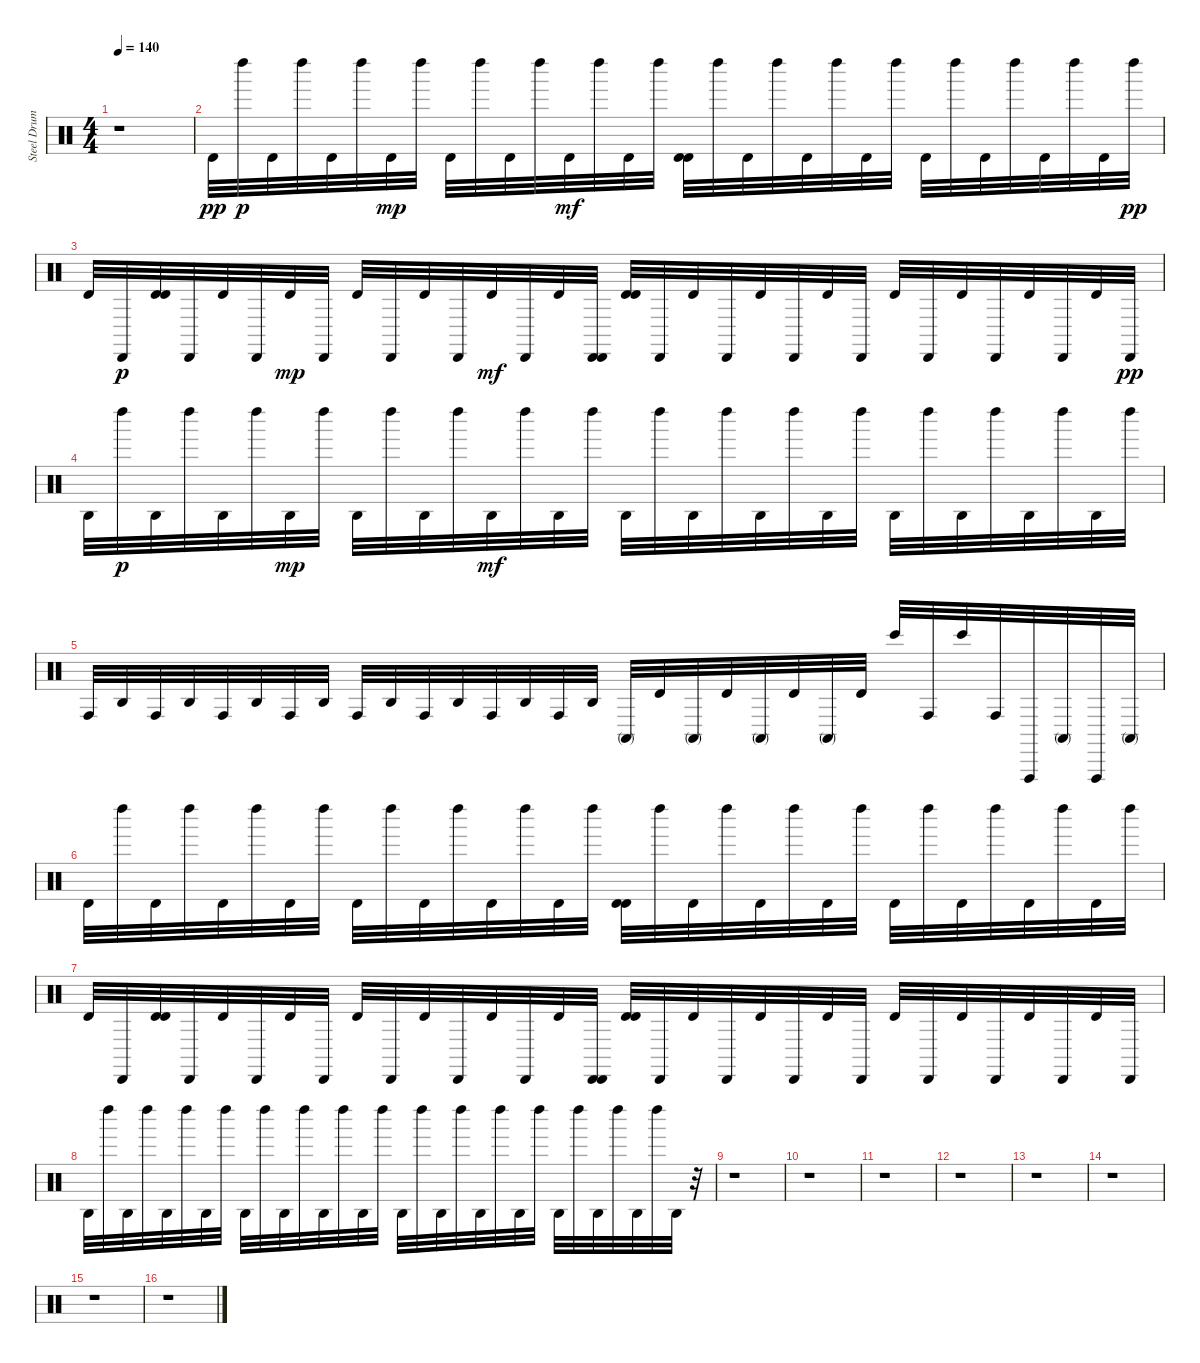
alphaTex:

\track ("Steel Drums" "Steel Drum") {instrument percussion}
\staff {score}
\articulation defaults
\ts (4 4)
\tempo 140
\clef neutral
\ks c
r.1{dy pp} |
"Timbale high (hit)".32 "Left Maraca (hit)".32{dy p} "Timbale high (hit)".32 "Left Maraca (hit)".32 "Timbale high (hit)".32 "Left Maraca (hit)".32 "Timbale high (hit)".32{dy mp} "Left Maraca (hit)".32 "Timbale high (hit)".32 "Left Maraca (hit)".32 "Timbale high (hit)".32 "Left Maraca (hit)".32 "Timbale high (hit)".32{dy mf} "Left Maraca (hit)".32 "Timbale high (hit)".32 "Left Maraca (hit)".32 ("Timbale high (hit)" "Timbale high (hit)").32 "Left Maraca (hit)".32 "Timbale high (hit)".32 "Left Maraca (hit)".32 "Timbale high (hit)".32 "Left Maraca (hit)".32 "Timbale high (hit)".32 "Left Maraca (hit)".32 "Timbale high (hit)".32 "Left Maraca (hit)".32 "Timbale high (hit)".32 "Left Maraca (hit)".32 "Timbale high (hit)".32 "Left Maraca (hit)".32 "Timbale high (hit)".32 "Left Maraca (hit)".32{dy pp} |
"Timbale high (hit)".32 "Cabasa (hit)".32{dy p} ("Timbale high (hit)" "Timbale high (hit)").32 "Cabasa (hit)".32 "Timbale high (hit)".32 "Cabasa (hit)".32 "Timbale high (hit)".32{dy mp} "Cabasa (hit)".32 "Timbale high (hit)".32 "Cabasa (hit)".32 "Timbale high (hit)".32 "Cabasa (hit)".32 "Timbale high (hit)".32{dy mf} "Cabasa (hit)".32 "Timbale high (hit)".32 ("Cabasa (hit)" "Cabasa (hit)").32 ("Timbale high (hit)" "Timbale high (hit)").32 "Cabasa (hit)".32 "Timbale high (hit)".32 "Cabasa (hit)".32 "Timbale high (hit)".32 "Cabasa (hit)".32 "Timbale high (hit)".32 "Cabasa (hit)".32 "Timbale high (hit)".32 "Cabasa (hit)".32 "Timbale high (hit)".32 "Cabasa (hit)".32 "Timbale high (hit)".32 "Cabasa (hit)".32 "Timbale high (hit)".32 "Cabasa (hit)".32{dy pp} |
"Agogo high (hit)".32 "Left Maraca (hit)".32{dy p} "Agogo high (hit)".32 "Left Maraca (hit)".32 "Agogo high (hit)".32 "Left Maraca (hit)".32 "Agogo high (hit)".32{dy mp} "Left Maraca (hit)".32 "Agogo high (hit)".32 "Left Maraca (hit)".32 "Agogo high (hit)".32 "Left Maraca (hit)".32 "Agogo high (hit)".32{dy mf} "Left Maraca (hit)".32 "Agogo high (hit)".32 "Left Maraca (hit)".32 "Agogo high (hit)".32 "Left Maraca (hit)".32 "Agogo high (hit)".32 "Left Maraca (hit)".32 "Agogo high (hit)".32 "Left Maraca (hit)".32 "Agogo high (hit)".32 "Left Maraca (hit)".32 "Agogo high (hit)".32 "Left Maraca (hit)".32 "Agogo high (hit)".32 "Left Maraca (hit)".32 "Agogo high (hit)".32 "Left Maraca (hit)".32 "Agogo high (hit)".32 "Left Maraca (hit)".32 |
"Conga high (hit)".32 "Agogo high (hit)".32 "Conga high (hit)".32 "Agogo high (hit)".32 "Conga high (hit)".32 "Agogo high (hit)".32 "Conga high (hit)".32 "Agogo high (hit)".32 "Conga high (hit)".32 "Agogo high (hit)".32 "Conga high (hit)".32 "Agogo high (hit)".32 "Conga high (hit)".32 "Agogo high (hit)".32 "Conga high (hit)".32 "Agogo high (hit)".32 "Conga high (mute)".32 "Timbale high (hit)".32 "Conga high (mute)".32 "Timbale high (hit)".32 "Conga high (mute)".32 "Timbale high (hit)".32 "Conga high (mute)".32 "Timbale high (hit)".32 "Bongo High (hit)".32 "Conga high (hit)".32 "Bongo High (hit)".32 "Conga high (hit)".32 "Vibraslap (hit)".32 "Conga high (mute)".32 "Vibraslap (hit)".32 "Conga high (mute)".32 |
"Timbale high (hit)".32 "Left Maraca (hit)".32 "Timbale high (hit)".32 "Left Maraca (hit)".32 "Timbale high (hit)".32 "Left Maraca (hit)".32 "Timbale high (hit)".32 "Left Maraca (hit)".32 "Timbale high (hit)".32 "Left Maraca (hit)".32 "Timbale high (hit)".32 "Left Maraca (hit)".32 "Timbale high (hit)".32 "Left Maraca (hit)".32 "Timbale high (hit)".32 "Left Maraca (hit)".32 ("Timbale high (hit)" "Timbale high (hit)").32 "Left Maraca (hit)".32 "Timbale high (hit)".32 "Left Maraca (hit)".32 "Timbale high (hit)".32 "Left Maraca (hit)".32 "Timbale high (hit)".32 "Left Maraca (hit)".32 "Timbale high (hit)".32 "Left Maraca (hit)".32 "Timbale high (hit)".32 "Left Maraca (hit)".32 "Timbale high (hit)".32 "Left Maraca (hit)".32 "Timbale high (hit)".32 "Left Maraca (hit)".32 |
"Timbale high (hit)".32 "Cabasa (hit)".32 ("Timbale high (hit)" "Timbale high (hit)").32 "Cabasa (hit)".32 "Timbale high (hit)".32 "Cabasa (hit)".32 "Timbale high (hit)".32 "Cabasa (hit)".32 "Timbale high (hit)".32 "Cabasa (hit)".32 "Timbale high (hit)".32 "Cabasa (hit)".32 "Timbale high (hit)".32 "Cabasa (hit)".32 "Timbale high (hit)".32 ("Cabasa (hit)" "Cabasa (hit)").32 ("Timbale high (hit)" "Timbale high (hit)").32 "Cabasa (hit)".32 "Timbale high (hit)".32 "Cabasa (hit)".32 "Timbale high (hit)".32 "Cabasa (hit)".32 "Timbale high (hit)".32 "Cabasa (hit)".32 "Timbale high (hit)".32 "Cabasa (hit)".32 "Timbale high (hit)".32 "Cabasa (hit)".32 "Timbale high (hit)".32 "Cabasa (hit)".32 "Timbale high (hit)".32 "Cabasa (hit)".32 |
"Agogo high (hit)".32 "Left Maraca (hit)".32 "Agogo high (hit)".32 "Left Maraca (hit)".32 "Agogo high (hit)".32 "Left Maraca (hit)".32 "Agogo high (hit)".32 "Left Maraca (hit)".32 "Agogo high (hit)".32 "Left Maraca (hit)".32 "Agogo high (hit)".32 "Left Maraca (hit)".32 "Agogo high (hit)".32 "Left Maraca (hit)".32 "Agogo high (hit)".32 "Left Maraca (hit)".32 "Agogo high (hit)".32 "Left Maraca (hit)".32 "Agogo high (hit)".32 "Left Maraca (hit)".32 "Agogo high (hit)".32 "Left Maraca (hit)".32 "Agogo high (hit)".32 "Left Maraca (hit)".32 "Agogo high (hit)".32 "Left Maraca (hit)".32 "Agogo high (hit)".32 "Left Maraca (hit)".32 "Agogo high (hit)".32 "Left Maraca (hit)".32 "Agogo high (hit)".32 r.32 |
r.1 |
r.1 |
r.1 |
r.1 |
r.1 |
r.1 |
r.1 |
r.1
